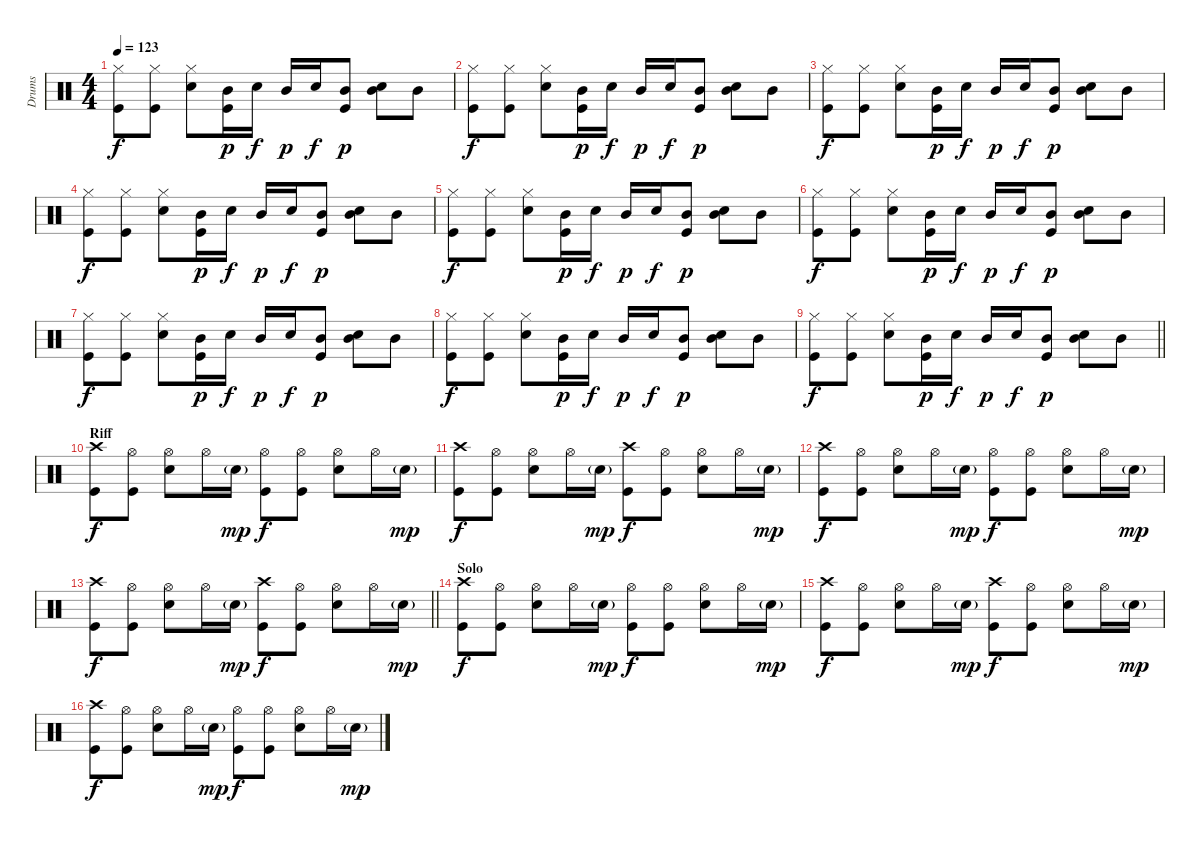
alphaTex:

\track ("Drums" "Drums") {instrument percussion}
\staff {score}
\articulation defaults
\ts (4 4)
\tempo 123
\clef neutral
\ks c
("Hi-Hat (closed)" "Kick (hit)").8{dy f} ("Hi-Hat (closed)" "Kick (hit)").8 ("Hi-Hat (closed)" "Snare (hit) 2").8 ("Mid Tom (hit)" "Kick (hit)").16{dy p} "Snare (hit) 2".16{dy f} "Mid Tom (hit)".16{dy p} "Snare (hit) 2".16{dy f} ("Mid Tom (hit)" "Kick (hit)").8{dy p} ("Snare (hit) 2" "Mid Tom (hit)").8 "Mid Tom (hit)".8 |
("Hi-Hat (closed)" "Kick (hit)").8{dy f} ("Hi-Hat (closed)" "Kick (hit)").8 ("Hi-Hat (closed)" "Snare (hit) 2").8 ("Mid Tom (hit)" "Kick (hit)").16{dy p} "Snare (hit) 2".16{dy f} "Mid Tom (hit)".16{dy p} "Snare (hit) 2".16{dy f} ("Mid Tom (hit)" "Kick (hit)").8{dy p} ("Snare (hit) 2" "Mid Tom (hit)").8 "Mid Tom (hit)".8 |
("Hi-Hat (closed)" "Kick (hit)").8{dy f} ("Hi-Hat (closed)" "Kick (hit)").8 ("Hi-Hat (closed)" "Snare (hit) 2").8 ("Mid Tom (hit)" "Kick (hit)").16{dy p} "Snare (hit) 2".16{dy f} "Mid Tom (hit)".16{dy p} "Snare (hit) 2".16{dy f} ("Mid Tom (hit)" "Kick (hit)").8{dy p} ("Snare (hit) 2" "Mid Tom (hit)").8 "Mid Tom (hit)".8 |
("Hi-Hat (closed)" "Kick (hit)").8{dy f} ("Hi-Hat (closed)" "Kick (hit)").8 ("Hi-Hat (closed)" "Snare (hit) 2").8 ("Mid Tom (hit)" "Kick (hit)").16{dy p} "Snare (hit) 2".16{dy f} "Mid Tom (hit)".16{dy p} "Snare (hit) 2".16{dy f} ("Mid Tom (hit)" "Kick (hit)").8{dy p} ("Snare (hit) 2" "Mid Tom (hit)").8 "Mid Tom (hit)".8 |
("Hi-Hat (closed)" "Kick (hit)").8{dy f} ("Hi-Hat (closed)" "Kick (hit)").8 ("Hi-Hat (closed)" "Snare (hit) 2").8 ("Mid Tom (hit)" "Kick (hit)").16{dy p} "Snare (hit) 2".16{dy f} "Mid Tom (hit)".16{dy p} "Snare (hit) 2".16{dy f} ("Mid Tom (hit)" "Kick (hit)").8{dy p} ("Snare (hit) 2" "Mid Tom (hit)").8 "Mid Tom (hit)".8 |
("Hi-Hat (closed)" "Kick (hit)").8{dy f} ("Hi-Hat (closed)" "Kick (hit)").8 ("Hi-Hat (closed)" "Snare (hit) 2").8 ("Mid Tom (hit)" "Kick (hit)").16{dy p} "Snare (hit) 2".16{dy f} "Mid Tom (hit)".16{dy p} "Snare (hit) 2".16{dy f} ("Mid Tom (hit)" "Kick (hit)").8{dy p} ("Snare (hit) 2" "Mid Tom (hit)").8 "Mid Tom (hit)".8 |
("Hi-Hat (closed)" "Kick (hit)").8{dy f} ("Hi-Hat (closed)" "Kick (hit)").8 ("Hi-Hat (closed)" "Snare (hit) 2").8 ("Mid Tom (hit)" "Kick (hit)").16{dy p} "Snare (hit) 2".16{dy f} "Mid Tom (hit)".16{dy p} "Snare (hit) 2".16{dy f} ("Mid Tom (hit)" "Kick (hit)").8{dy p} ("Snare (hit) 2" "Mid Tom (hit)").8 "Mid Tom (hit)".8 |
("Hi-Hat (closed)" "Kick (hit)").8{dy f} ("Hi-Hat (closed)" "Kick (hit)").8 ("Hi-Hat (closed)" "Snare (hit) 2").8 ("Mid Tom (hit)" "Kick (hit)").16{dy p} "Snare (hit) 2".16{dy f} "Mid Tom (hit)".16{dy p} "Snare (hit) 2".16{dy f} ("Mid Tom (hit)" "Kick (hit)").8{dy p} ("Snare (hit) 2" "Mid Tom (hit)").8 "Mid Tom (hit)".8 |
\barLineRight lightlight
("Hi-Hat (closed)" "Kick (hit)").8{dy f} ("Hi-Hat (closed)" "Kick (hit)").8 ("Hi-Hat (closed)" "Snare (hit) 2").8 ("Mid Tom (hit)" "Kick (hit)").16{dy p} "Snare (hit) 2".16{dy f} "Mid Tom (hit)".16{dy p} "Snare (hit) 2".16{dy f} ("Mid Tom (hit)" "Kick (hit)").8{dy p} ("Snare (hit) 2" "Mid Tom (hit)").8 "Mid Tom (hit)".8 |
\section ("" "Riff")
("Crash high (hit)" "Kick (hit)").8{dy f} ("Hi-Hat (open)" "Kick (hit)").8 ("Hi-Hat (open)" "Snare (hit) 2").8 "Hi-Hat (open)".16 "Snare (hit) 2"{g}.16{dy mp} ("Hi-Hat (open)" "Kick (hit)").8{dy f} ("Hi-Hat (open)" "Kick (hit)").8 ("Hi-Hat (open)" "Snare (hit) 2").8 "Hi-Hat (open)".16 "Snare (hit) 2"{g}.16{dy mp} |
("Crash high (hit)" "Kick (hit)").8{dy f} ("Hi-Hat (open)" "Kick (hit)").8 ("Hi-Hat (open)" "Snare (hit) 2").8 "Hi-Hat (open)".16 "Snare (hit) 2"{g}.16{dy mp} ("Crash high (hit)" "Kick (hit)").8{dy f} ("Hi-Hat (open)" "Kick (hit)").8 ("Hi-Hat (open)" "Snare (hit) 2").8 "Hi-Hat (open)".16 "Snare (hit) 2"{g}.16{dy mp} |
("Crash high (hit)" "Kick (hit)").8{dy f} ("Hi-Hat (open)" "Kick (hit)").8 ("Hi-Hat (open)" "Snare (hit) 2").8 "Hi-Hat (open)".16 "Snare (hit) 2"{g}.16{dy mp} ("Hi-Hat (open)" "Kick (hit)").8{dy f} ("Hi-Hat (open)" "Kick (hit)").8 ("Hi-Hat (open)" "Snare (hit) 2").8 "Hi-Hat (open)".16 "Snare (hit) 2"{g}.16{dy mp} |
\barLineRight lightlight
("Crash high (hit)" "Kick (hit)").8{dy f} ("Hi-Hat (open)" "Kick (hit)").8 ("Hi-Hat (open)" "Snare (hit) 2").8 "Hi-Hat (open)".16 "Snare (hit) 2"{g}.16{dy mp} ("Crash high (hit)" "Kick (hit)").8{dy f} ("Hi-Hat (open)" "Kick (hit)").8 ("Hi-Hat (open)" "Snare (hit) 2").8 "Hi-Hat (open)".16 "Snare (hit) 2"{g}.16{dy mp} |
\section ("" "Solo")
("Crash high (hit)" "Kick (hit)").8{dy f} ("Hi-Hat (open)" "Kick (hit)").8 ("Hi-Hat (open)" "Snare (hit) 2").8 "Hi-Hat (open)".16 "Snare (hit) 2"{g}.16{dy mp} ("Hi-Hat (open)" "Kick (hit)").8{dy f} ("Hi-Hat (open)" "Kick (hit)").8 ("Hi-Hat (open)" "Snare (hit) 2").8 "Hi-Hat (open)".16 "Snare (hit) 2"{g}.16{dy mp} |
("Crash high (hit)" "Kick (hit)").8{dy f} ("Hi-Hat (open)" "Kick (hit)").8 ("Hi-Hat (open)" "Snare (hit) 2").8 "Hi-Hat (open)".16 "Snare (hit) 2"{g}.16{dy mp} ("Crash high (hit)" "Kick (hit)").8{dy f} ("Hi-Hat (open)" "Kick (hit)").8 ("Hi-Hat (open)" "Snare (hit) 2").8 "Hi-Hat (open)".16 "Snare (hit) 2"{g}.16{dy mp} |
("Crash high (hit)" "Kick (hit)").8{dy f} ("Hi-Hat (open)" "Kick (hit)").8 ("Hi-Hat (open)" "Snare (hit) 2").8 "Hi-Hat (open)".16 "Snare (hit) 2"{g}.16{dy mp} ("Hi-Hat (open)" "Kick (hit)").8{dy f} ("Hi-Hat (open)" "Kick (hit)").8 ("Hi-Hat (open)" "Snare (hit) 2").8 "Hi-Hat (open)".16 "Snare (hit) 2"{g}.16{dy mp}
